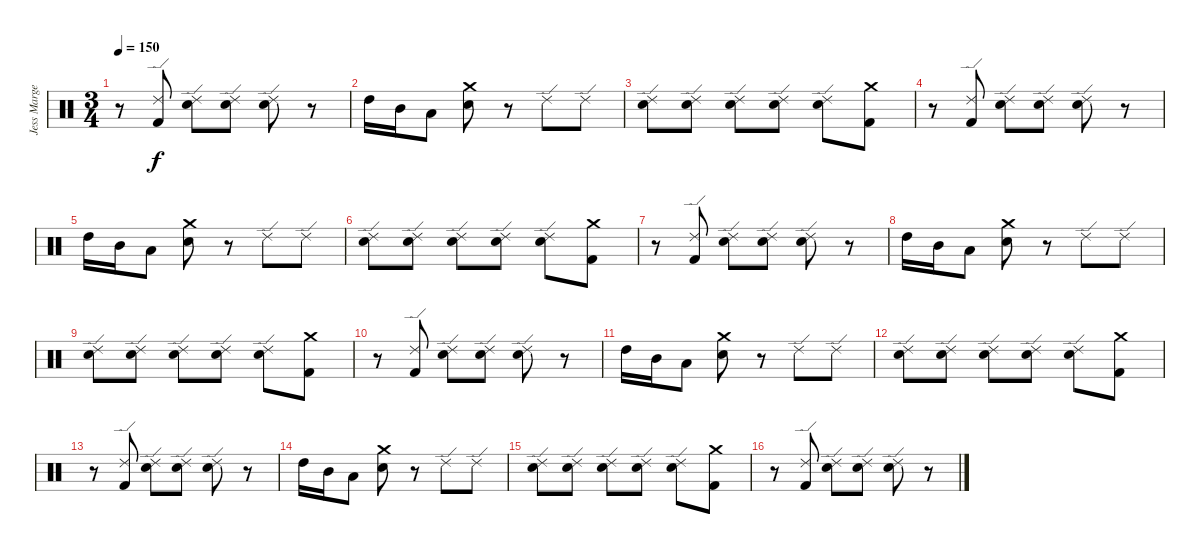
\track ("Jess Margera" "Jess Marge") {instrument percussion}
\staff {score}
\articulation defaults
\ts (3 4)
\tempo 150
\clef neutral
\ks c
r.8{dy f} ("Ride (edge) 2" "Kick (hit) 2").8 ("Ride (edge) 2" "Electric Snare (hit)").8 ("Ride (edge) 2" "Electric Snare (hit)").8 ("Ride (edge) 2" "Electric Snare (hit)").8 r.8 |
"High Tom (hit)".16 "Mid Tom (hit)".16 "Low Tom (hit)".8 ("Crash medium (hit)" "Electric Snare (hit)").8 r.8 "Ride (edge) 2".8 "Ride (edge) 2".8 |
("Ride (edge) 2" "Electric Snare (hit)").8 ("Ride (edge) 2" "Electric Snare (hit)").8 ("Ride (edge) 2" "Electric Snare (hit)").8 ("Ride (edge) 2" "Electric Snare (hit)").8 ("Ride (edge) 2" "Electric Snare (hit)").8 ("Crash medium (hit)" "Kick (hit) 2").8 |
r.8 ("Ride (edge) 2" "Kick (hit) 2").8 ("Ride (edge) 2" "Electric Snare (hit)").8 ("Ride (edge) 2" "Electric Snare (hit)").8 ("Ride (edge) 2" "Electric Snare (hit)").8 r.8 |
"High Tom (hit)".16 "Mid Tom (hit)".16 "Low Tom (hit)".8 ("Crash medium (hit)" "Electric Snare (hit)").8 r.8 "Ride (edge) 2".8 "Ride (edge) 2".8 |
("Ride (edge) 2" "Electric Snare (hit)").8 ("Ride (edge) 2" "Electric Snare (hit)").8 ("Ride (edge) 2" "Electric Snare (hit)").8 ("Ride (edge) 2" "Electric Snare (hit)").8 ("Ride (edge) 2" "Electric Snare (hit)").8 ("Crash medium (hit)" "Kick (hit) 2").8 |
r.8 ("Ride (edge) 2" "Kick (hit) 2").8 ("Ride (edge) 2" "Electric Snare (hit)").8 ("Ride (edge) 2" "Electric Snare (hit)").8 ("Ride (edge) 2" "Electric Snare (hit)").8 r.8 |
"High Tom (hit)".16 "Mid Tom (hit)".16 "Low Tom (hit)".8 ("Crash medium (hit)" "Electric Snare (hit)").8 r.8 "Ride (edge) 2".8 "Ride (edge) 2".8 |
("Ride (edge) 2" "Electric Snare (hit)").8 ("Ride (edge) 2" "Electric Snare (hit)").8 ("Ride (edge) 2" "Electric Snare (hit)").8 ("Ride (edge) 2" "Electric Snare (hit)").8 ("Ride (edge) 2" "Electric Snare (hit)").8 ("Crash medium (hit)" "Kick (hit) 2").8 |
r.8 ("Ride (edge) 2" "Kick (hit) 2").8 ("Ride (edge) 2" "Electric Snare (hit)").8 ("Ride (edge) 2" "Electric Snare (hit)").8 ("Ride (edge) 2" "Electric Snare (hit)").8 r.8 |
"High Tom (hit)".16 "Mid Tom (hit)".16 "Low Tom (hit)".8 ("Crash medium (hit)" "Electric Snare (hit)").8 r.8 "Ride (edge) 2".8 "Ride (edge) 2".8 |
("Ride (edge) 2" "Electric Snare (hit)").8 ("Ride (edge) 2" "Electric Snare (hit)").8 ("Ride (edge) 2" "Electric Snare (hit)").8 ("Ride (edge) 2" "Electric Snare (hit)").8 ("Ride (edge) 2" "Electric Snare (hit)").8 ("Crash medium (hit)" "Kick (hit) 2").8 |
r.8 ("Ride (edge) 2" "Kick (hit) 2").8 ("Ride (edge) 2" "Electric Snare (hit)").8 ("Ride (edge) 2" "Electric Snare (hit)").8 ("Ride (edge) 2" "Electric Snare (hit)").8 r.8 |
"High Tom (hit)".16 "Mid Tom (hit)".16 "Low Tom (hit)".8 ("Crash medium (hit)" "Electric Snare (hit)").8 r.8 "Ride (edge) 2".8 "Ride (edge) 2".8 |
("Ride (edge) 2" "Electric Snare (hit)").8 ("Ride (edge) 2" "Electric Snare (hit)").8 ("Ride (edge) 2" "Electric Snare (hit)").8 ("Ride (edge) 2" "Electric Snare (hit)").8 ("Ride (edge) 2" "Electric Snare (hit)").8 ("Crash medium (hit)" "Kick (hit) 2").8 |
r.8 ("Ride (edge) 2" "Kick (hit) 2").8 ("Ride (edge) 2" "Electric Snare (hit)").8 ("Ride (edge) 2" "Electric Snare (hit)").8 ("Ride (edge) 2" "Electric Snare (hit)").8 r.8
